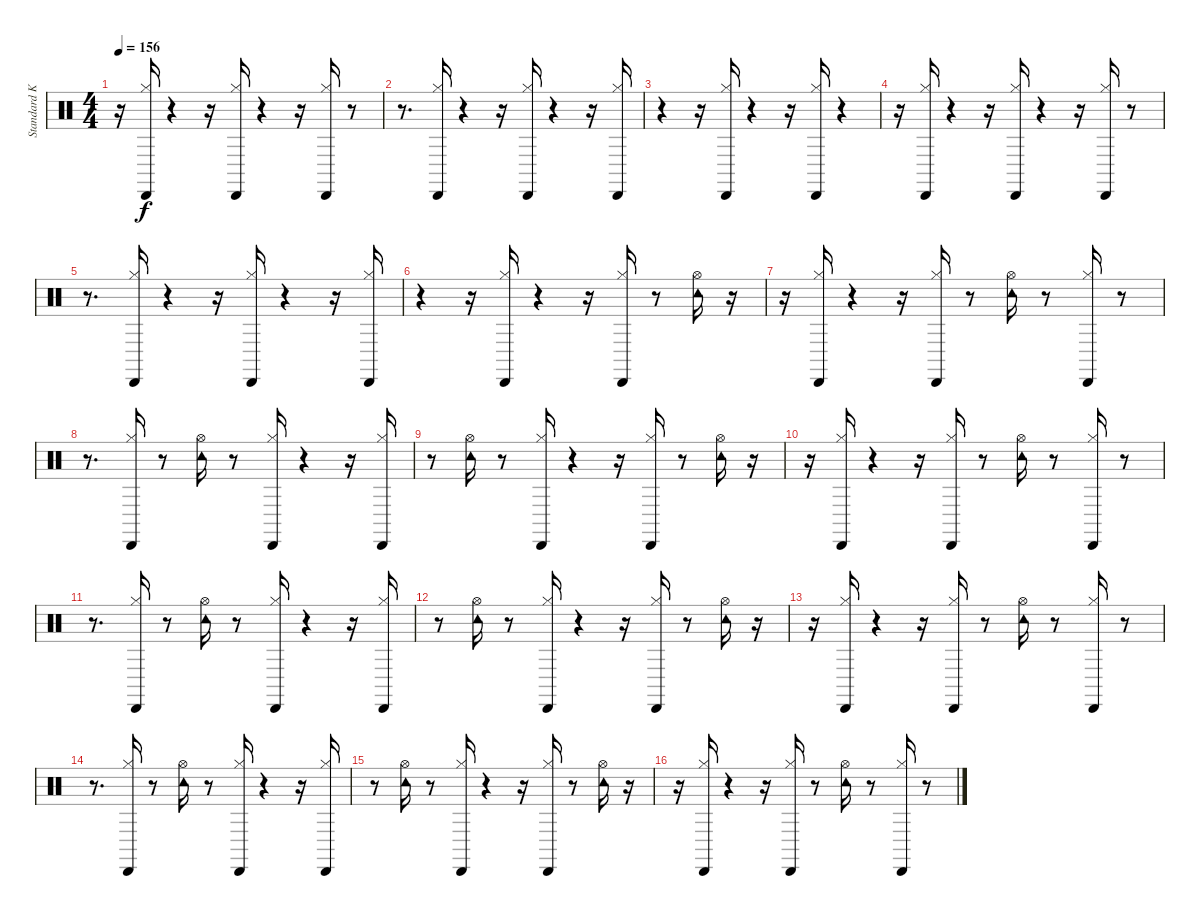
\track ("Standard Kit" "Standard K") {instrument percussion}
\staff {score}
\articulation defaults
\ts (4 4)
\tempo 156
\clef neutral
\ks c
r.16{dy f} ("Hi-Hat (closed)" "Cabasa (hit)").16 r.4 r.16 ("Hi-Hat (closed)" "Cabasa (hit)").16 r.4 r.16 ("Hi-Hat (closed)" "Cabasa (hit)").16 r.8 |
r.8{d} ("Hi-Hat (closed)" "Cabasa (hit)").16 r.4 r.16 ("Hi-Hat (closed)" "Cabasa (hit)").16 r.4 r.16 ("Hi-Hat (closed)" "Cabasa (hit)").16 |
r.4 r.16 ("Hi-Hat (closed)" "Cabasa (hit)").16 r.4 r.16 ("Hi-Hat (closed)" "Cabasa (hit)").16 r.4 |
r.16 ("Hi-Hat (closed)" "Cabasa (hit)").16 r.4 r.16 ("Hi-Hat (closed)" "Cabasa (hit)").16 r.4 r.16 ("Hi-Hat (closed)" "Cabasa (hit)").16 r.8 |
r.8{d} ("Hi-Hat (closed)" "Cabasa (hit)").16 r.4 r.16 ("Hi-Hat (closed)" "Cabasa (hit)").16 r.4 r.16 ("Hi-Hat (closed)" "Cabasa (hit)").16 |
r.4 r.16 ("Hi-Hat (closed)" "Cabasa (hit)").16 r.4 r.16 ("Hi-Hat (closed)" "Cabasa (hit)").16 r.8 ("Hi-Hat (open)" "Tambourine (hit)").16 r.16 |
r.16 ("Hi-Hat (closed)" "Cabasa (hit)").16 r.4 r.16 ("Hi-Hat (closed)" "Cabasa (hit)").16 r.8 ("Hi-Hat (open)" "Tambourine (hit)").16 r.8 ("Hi-Hat (closed)" "Cabasa (hit)").16 r.8 |
r.8{d} ("Hi-Hat (closed)" "Cabasa (hit)").16 r.8 ("Hi-Hat (open)" "Tambourine (hit)").16 r.8 ("Hi-Hat (closed)" "Cabasa (hit)").16 r.4 r.16 ("Hi-Hat (closed)" "Cabasa (hit)").16 |
r.8 ("Hi-Hat (open)" "Tambourine (hit)").16 r.8 ("Hi-Hat (closed)" "Cabasa (hit)").16 r.4 r.16 ("Hi-Hat (closed)" "Cabasa (hit)").16 r.8 ("Hi-Hat (open)" "Tambourine (hit)").16 r.16 |
r.16 ("Hi-Hat (closed)" "Cabasa (hit)").16 r.4 r.16 ("Hi-Hat (closed)" "Cabasa (hit)").16 r.8 ("Hi-Hat (open)" "Tambourine (hit)").16 r.8 ("Hi-Hat (closed)" "Cabasa (hit)").16 r.8 |
r.8{d} ("Hi-Hat (closed)" "Cabasa (hit)").16 r.8 ("Hi-Hat (open)" "Tambourine (hit)").16 r.8 ("Hi-Hat (closed)" "Cabasa (hit)").16 r.4 r.16 ("Hi-Hat (closed)" "Cabasa (hit)").16 |
r.8 ("Hi-Hat (open)" "Tambourine (hit)").16 r.8 ("Hi-Hat (closed)" "Cabasa (hit)").16 r.4 r.16 ("Hi-Hat (closed)" "Cabasa (hit)").16 r.8 ("Hi-Hat (open)" "Tambourine (hit)").16 r.16 |
r.16 ("Hi-Hat (closed)" "Cabasa (hit)").16 r.4 r.16 ("Hi-Hat (closed)" "Cabasa (hit)").16 r.8 ("Hi-Hat (open)" "Tambourine (hit)").16 r.8 ("Hi-Hat (closed)" "Cabasa (hit)").16 r.8 |
r.8{d} ("Hi-Hat (closed)" "Cabasa (hit)").16 r.8 ("Hi-Hat (open)" "Tambourine (hit)").16 r.8 ("Hi-Hat (closed)" "Cabasa (hit)").16 r.4 r.16 ("Hi-Hat (closed)" "Cabasa (hit)").16 |
r.8 ("Hi-Hat (open)" "Tambourine (hit)").16 r.8 ("Hi-Hat (closed)" "Cabasa (hit)").16 r.4 r.16 ("Hi-Hat (closed)" "Cabasa (hit)").16 r.8 ("Hi-Hat (open)" "Tambourine (hit)").16 r.16 |
r.16 ("Hi-Hat (closed)" "Cabasa (hit)").16 r.4 r.16 ("Hi-Hat (closed)" "Cabasa (hit)").16 r.8 ("Hi-Hat (open)" "Tambourine (hit)").16 r.8 ("Hi-Hat (closed)" "Cabasa (hit)").16 r.8
